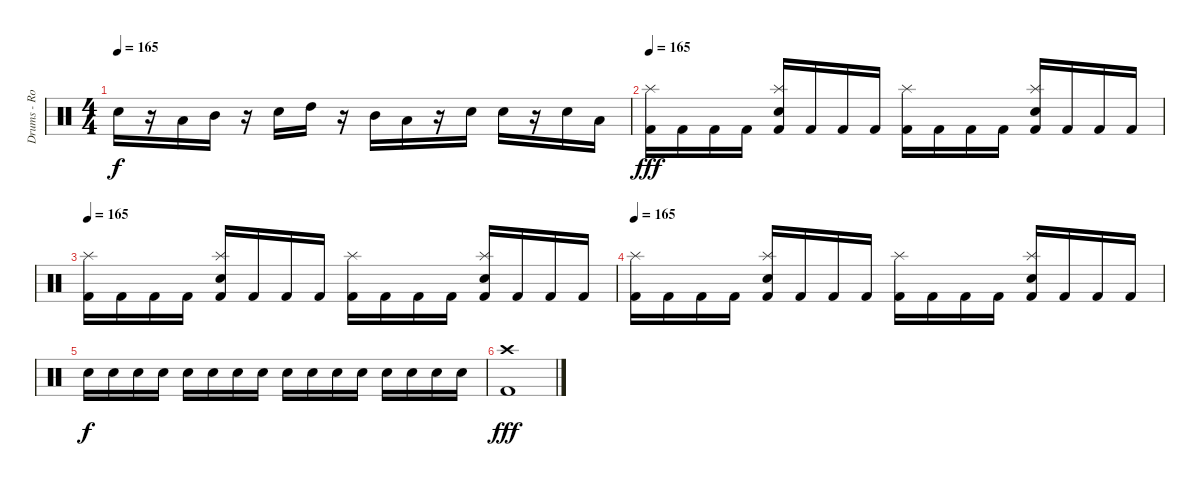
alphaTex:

\track ("Drums - Rodrigo" "Drums - Ro") {instrument percussion}
\staff {score}
\articulation defaults
\ts (4 4)
\tempo 165
\clef neutral
\ks c "Electric Snare (hit)".16{dy f}
r.16 "Low Tom (hit)".16 "Mid Tom (hit)".16 r.16 "Electric Snare (hit)".16 "High Tom (hit)".16 r.16 "Mid Tom (hit)".16 "Low Tom (hit)".16 r.16 "Electric Snare (hit)".16 "Electric Snare (hit)".16 r.16 "Electric Snare (hit)".16 "Low Tom (hit)".16 |
\tempo 165
("Splash (hit)" "Kick (hit) 2").16{dy fff} "Kick (hit) 2".16 "Kick (hit) 2".16 "Kick (hit) 2".16 ("Splash (hit)" "Electric Snare (hit)" "Kick (hit) 2").16 "Kick (hit) 2".16 "Kick (hit) 2".16 "Kick (hit) 2".16 ("Splash (hit)" "Kick (hit) 2").16 "Kick (hit) 2".16 "Kick (hit) 2".16 "Kick (hit) 2".16 ("Splash (hit)" "Electric Snare (hit)" "Kick (hit) 2").16 "Kick (hit) 2".16 "Kick (hit) 2".16 "Kick (hit) 2".16 |
\tempo 165
("Splash (hit)" "Kick (hit) 2").16 "Kick (hit) 2".16 "Kick (hit) 2".16 "Kick (hit) 2".16 ("Splash (hit)" "Electric Snare (hit)" "Kick (hit) 2").16 "Kick (hit) 2".16 "Kick (hit) 2".16 "Kick (hit) 2".16 ("Splash (hit)" "Kick (hit) 2").16 "Kick (hit) 2".16 "Kick (hit) 2".16 "Kick (hit) 2".16 ("Splash (hit)" "Electric Snare (hit)" "Kick (hit) 2").16 "Kick (hit) 2".16 "Kick (hit) 2".16 "Kick (hit) 2".16 |
\tempo 165
("Splash (hit)" "Kick (hit) 2").16 "Kick (hit) 2".16 "Kick (hit) 2".16 "Kick (hit) 2".16 ("Splash (hit)" "Electric Snare (hit)" "Kick (hit) 2").16 "Kick (hit) 2".16 "Kick (hit) 2".16 "Kick (hit) 2".16 ("Splash (hit)" "Kick (hit) 2").16 "Kick (hit) 2".16 "Kick (hit) 2".16 "Kick (hit) 2".16 ("Splash (hit)" "Electric Snare (hit)" "Kick (hit) 2").16 "Kick (hit) 2".16 "Kick (hit) 2".16 "Kick (hit) 2".16 |
"Electric Snare (hit)".16{dy f} "Electric Snare (hit)".16 "Electric Snare (hit)".16 "Electric Snare (hit)".16 "Electric Snare (hit)".16 "Electric Snare (hit)".16 "Electric Snare (hit)".16 "Electric Snare (hit)".16 "Electric Snare (hit)".16 "Electric Snare (hit)".16 "Electric Snare (hit)".16 "Electric Snare (hit)".16 "Electric Snare (hit)".16 "Electric Snare (hit)".16 "Electric Snare (hit)".16 "Electric Snare (hit)".16 |
("Crash high (hit)" "Kick (hit) 2").1{dy fff}
